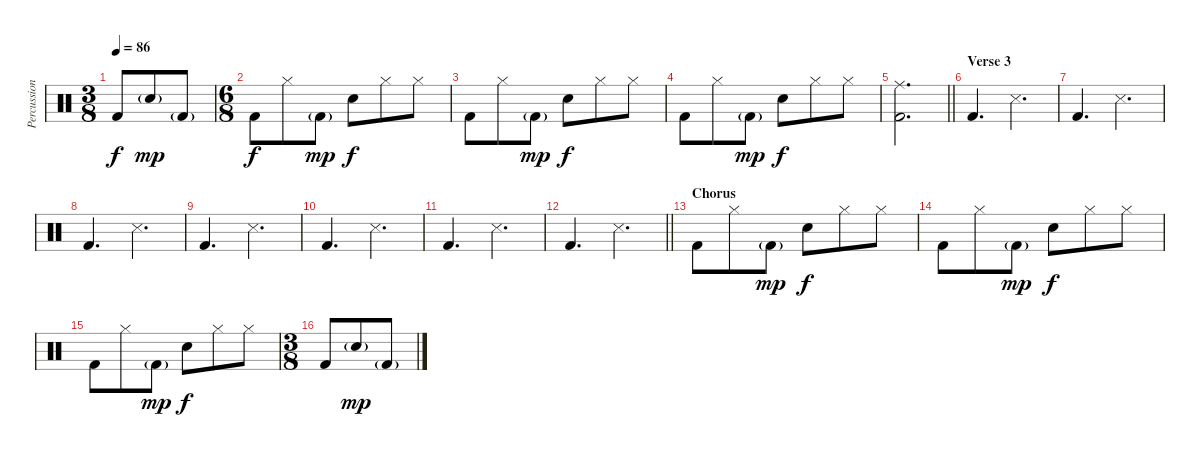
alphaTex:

\track ("Percussion" "Percussion") {instrument percussion}
\staff {score}
\articulation defaults
\ts (3 8)
\tempo 86
\clef neutral
\ks c "Kick (hit) 2".8{dy f} "Snare (hit) 2"{g}.8{dy mp} "Kick (hit) 2"{g}.8
|
\ts (6 8)
"Kick (hit) 2".8{dy f} "Hi-Hat (closed)".8 "Kick (hit) 2"{g}.8{dy mp} "Snare (hit) 2".8{dy f} "Hi-Hat (closed)".8 "Hi-Hat (closed)".8 |
"Kick (hit) 2".8 "Hi-Hat (closed)".8 "Kick (hit) 2"{g}.8{dy mp} "Snare (hit) 2".8{dy f} "Hi-Hat (closed)".8 "Hi-Hat (closed)".8 |
"Kick (hit) 2".8 "Hi-Hat (closed)".8 "Kick (hit) 2"{g}.8{dy mp} "Snare (hit) 2".8{dy f} "Hi-Hat (closed)".8 "Hi-Hat (closed)".8 |
\barLineRight lightlight
("Ride (middle)" "Kick (hit) 2").2{d} |
\section ("" "Verse 3")
"Kick (hit) 2".4{d} "Snare (side stick) 3".4{d} |
"Kick (hit) 2".4{d} "Snare (side stick) 3".4{d} |
"Kick (hit) 2".4{d} "Snare (side stick) 3".4{d} |
"Kick (hit) 2".4{d} "Snare (side stick) 3".4{d} |
"Kick (hit) 2".4{d} "Snare (side stick) 3".4{d} |
"Kick (hit) 2".4{d} "Snare (side stick) 3".4{d} |
\barLineRight lightlight "Kick (hit) 2".4{d} "Snare (side stick) 3".4{d}
|
\section ("" "Chorus")
"Kick (hit) 2".8 "Hi-Hat (closed)".8 "Kick (hit) 2"{g}.8{dy mp} "Snare (hit) 2".8{dy f} "Hi-Hat (closed)".8 "Hi-Hat (closed)".8 |
"Kick (hit) 2".8 "Hi-Hat (closed)".8 "Kick (hit) 2"{g}.8{dy mp} "Snare (hit) 2".8{dy f} "Hi-Hat (closed)".8 "Hi-Hat (closed)".8 |
"Kick (hit) 2".8 "Hi-Hat (closed)".8 "Kick (hit) 2"{g}.8{dy mp} "Snare (hit) 2".8{dy f} "Hi-Hat (closed)".8 "Hi-Hat (closed)".8 |
\ts (3 8)
"Kick (hit) 2".8 "Snare (hit) 2"{g}.8{dy mp} "Kick (hit) 2"{g}.8
